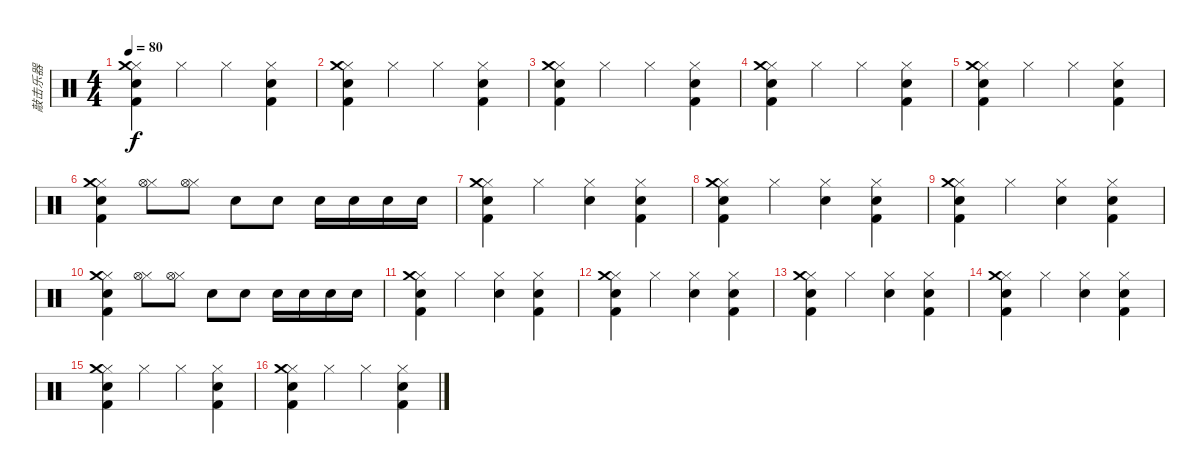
\track ("敲击乐器" "敲击乐器") {instrument percussion}
\staff {score}
\articulation defaults
\ts (4 4)
\tempo 80
\clef neutral
\ks c
("Hi-Hat (closed)" "Snare (hit) 2" "Kick (hit) 2" "Crash medium (hit)").4{dy f} "Hi-Hat (closed)".4 "Hi-Hat (closed)".4 ("Hi-Hat (closed)" "Snare (hit) 2" "Kick (hit) 2").4 |
("Hi-Hat (closed)" "Snare (hit) 2" "Kick (hit) 2" "Crash medium (hit)").4 "Hi-Hat (closed)".4 "Hi-Hat (closed)".4 ("Hi-Hat (closed)" "Snare (hit) 2" "Kick (hit) 2").4 |
("Hi-Hat (closed)" "Snare (hit) 2" "Kick (hit) 2" "Crash medium (hit)").4 "Hi-Hat (closed)".4 "Hi-Hat (closed)".4 ("Hi-Hat (closed)" "Snare (hit) 2" "Kick (hit) 2").4 |
("Hi-Hat (closed)" "Snare (hit) 2" "Kick (hit) 2" "Crash medium (hit)").4 "Hi-Hat (closed)".4 "Hi-Hat (closed)".4 ("Hi-Hat (closed)" "Snare (hit) 2" "Kick (hit) 2").4 |
("Hi-Hat (closed)" "Snare (hit) 2" "Kick (hit) 2" "Crash medium (hit)").4 "Hi-Hat (closed)".4 "Hi-Hat (closed)".4 ("Hi-Hat (closed)" "Snare (hit) 2" "Kick (hit) 2").4 |
("Hi-Hat (closed)" "Snare (hit) 2" "Kick (hit) 2" "Crash medium (hit)").4 ("Hi-Hat (closed)" "Hi-Hat (open)").8 ("Hi-Hat (closed)" "Hi-Hat (open)").8 "Electric Snare (hit)".8 "Electric Snare (hit)".8 "Snare (hit) 2".16 "Snare (hit) 2".16 "Snare (hit) 2".16 "Snare (hit) 2".16 |
("Hi-Hat (closed)" "Snare (hit) 2" "Kick (hit) 2" "Crash medium (hit)").4 "Hi-Hat (closed)".4 ("Hi-Hat (closed)" "Hand Clap (hit)").4 ("Hi-Hat (closed)" "Snare (hit) 2" "Kick (hit) 2").4 |
("Hi-Hat (closed)" "Snare (hit) 2" "Kick (hit) 2" "Crash medium (hit)").4 "Hi-Hat (closed)".4 ("Hi-Hat (closed)" "Hand Clap (hit)").4 ("Hi-Hat (closed)" "Snare (hit) 2" "Kick (hit) 2").4 |
("Hi-Hat (closed)" "Snare (hit) 2" "Kick (hit) 2" "Crash medium (hit)").4 "Hi-Hat (closed)".4 ("Hi-Hat (closed)" "Hand Clap (hit)").4 ("Hi-Hat (closed)" "Snare (hit) 2" "Kick (hit) 2").4 |
("Hi-Hat (closed)" "Snare (hit) 2" "Kick (hit) 2" "Crash medium (hit)").4 ("Hi-Hat (closed)" "Hi-Hat (open)").8 ("Hi-Hat (closed)" "Hi-Hat (open)").8 "Electric Snare (hit)".8 "Electric Snare (hit)".8 "Snare (hit) 2".16 "Snare (hit) 2".16 "Snare (hit) 2".16 "Snare (hit) 2".16 |
("Hi-Hat (closed)" "Snare (hit) 2" "Kick (hit) 2" "Crash medium (hit)").4 "Hi-Hat (closed)".4 ("Hi-Hat (closed)" "Hand Clap (hit)").4 ("Hi-Hat (closed)" "Snare (hit) 2" "Kick (hit) 2").4 |
("Hi-Hat (closed)" "Snare (hit) 2" "Kick (hit) 2" "Crash medium (hit)").4 "Hi-Hat (closed)".4 ("Hi-Hat (closed)" "Hand Clap (hit)").4 ("Hi-Hat (closed)" "Snare (hit) 2" "Kick (hit) 2").4 |
("Hi-Hat (closed)" "Snare (hit) 2" "Kick (hit) 2" "Crash medium (hit)").4 "Hi-Hat (closed)".4 ("Hi-Hat (closed)" "Hand Clap (hit)").4 ("Hi-Hat (closed)" "Snare (hit) 2" "Kick (hit) 2").4 |
("Hi-Hat (closed)" "Snare (hit) 2" "Kick (hit) 2" "Crash medium (hit)").4 "Hi-Hat (closed)".4 ("Hi-Hat (closed)" "Hand Clap (hit)").4 ("Hi-Hat (closed)" "Snare (hit) 2" "Kick (hit) 2").4 |
("Hi-Hat (closed)" "Snare (hit) 2" "Kick (hit) 2" "Crash medium (hit)").4 "Hi-Hat (closed)".4 "Hi-Hat (closed)".4 ("Hi-Hat (closed)" "Snare (hit) 2" "Kick (hit) 2").4 |
("Hi-Hat (closed)" "Snare (hit) 2" "Kick (hit) 2" "Crash medium (hit)").4 "Hi-Hat (closed)".4 "Hi-Hat (closed)".4 ("Hi-Hat (closed)" "Snare (hit) 2" "Kick (hit) 2").4
